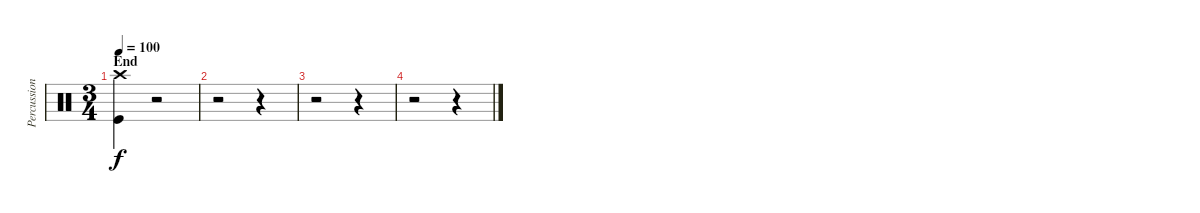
\track ("Percussion" "Percussion") {instrument percussion}
\staff {score}
\articulation defaults
\ts (3 4)
\section ("" "End")
\tempo 100
\clef neutral
\ks aminor
("Crash high (hit)" "Kick (hit)").4{dy f} r.2 |
r.2 r.4 |
r.2 r.4 |
r.2 r.4
